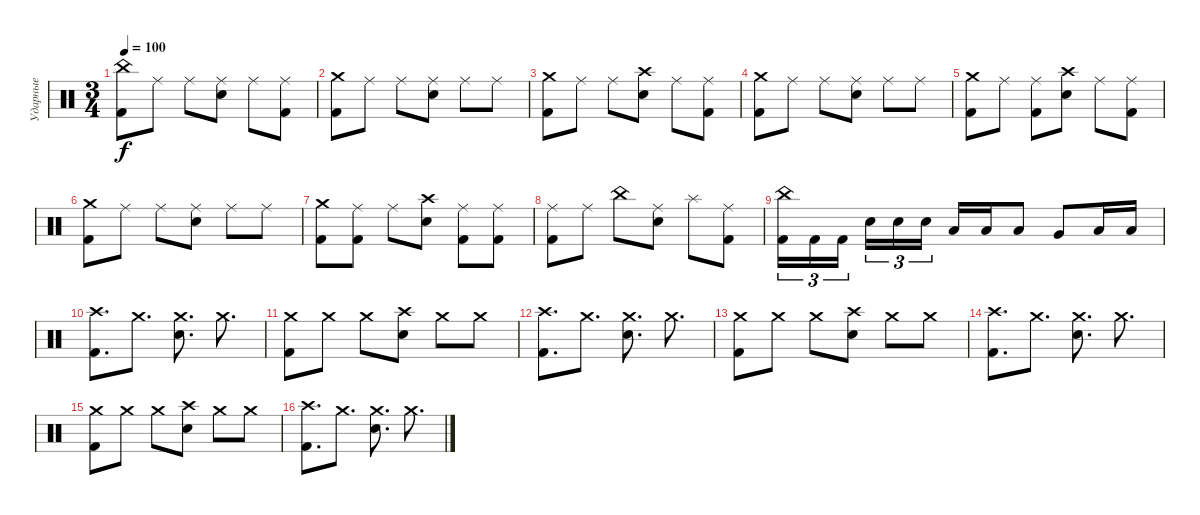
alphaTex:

\track ("Ударные" "Ударные") {instrument percussion}
\staff {score}
\articulation defaults
\ts (3 4)
\tempo 100
\clef neutral
\ks c
("China (hit)" "Kick (hit) 2").8{dy f} "Ride (middle)".8 "Ride (middle)".8 ("Ride (middle)" "Electric Snare (hit)").8 "Ride (middle)".8 ("Ride (middle)" "Kick (hit) 2").8 |
("Crash medium (hit)" "Kick (hit) 2").8 "Ride (middle)".8 "Ride (middle)".8 ("Ride (middle)" "Electric Snare (hit)").8 "Ride (middle)".8 "Ride (middle)".8 |
("Crash medium (hit)" "Kick (hit) 2").8 "Ride (middle)".8 "Ride (middle)".8 ("Crash high (hit)" "Electric Snare (hit)").8 "Ride (middle)".8 ("Ride (middle)" "Kick (hit) 2").8 |
("Crash medium (hit)" "Kick (hit) 2").8 "Ride (middle)".8 "Ride (middle)".8 ("Ride (middle)" "Electric Snare (hit)").8 "Ride (middle)".8 "Ride (middle)".8 |
("Crash medium (hit)" "Kick (hit) 2").8 "Ride (middle)".8 ("Ride (middle)" "Kick (hit) 2").8 ("Crash high (hit)" "Electric Snare (hit)").8 "Ride (middle)".8 ("Ride (middle)" "Kick (hit) 2").8 |
("Crash medium (hit)" "Kick (hit) 2").8 "Ride (middle)".8 "Ride (middle)".8 ("Ride (middle)" "Electric Snare (hit)").8 "Ride (middle)".8 "Ride (middle)".8 |
("Crash medium (hit)" "Kick (hit) 2").8 ("Ride (middle)" "Kick (hit) 2").8 "Ride (middle)".8 ("Crash high (hit)" "Electric Snare (hit)").8 ("Ride (middle)" "Kick (hit) 2").8 ("Ride (middle)" "Kick (hit) 2").8 |
("Ride (middle)" "Kick (hit) 2").8 "Ride (middle)".8 "China (hit)".8 ("Ride (middle)" "Electric Snare (hit)").8 "Splash (hit)".8 ("Ride (middle)" "Kick (hit) 2").8 |
("China (hit)" "Kick (hit) 2").16{tu (3 2)} "Kick (hit) 2".16{tu (3 2)} "Kick (hit) 2".16{tu (3 2) beam splitsecondary} "Electric Snare (hit)".16{tu (3 2)} "Electric Snare (hit)".16{tu (3 2)} "Electric Snare (hit)".16{tu (3 2)} "Low Tom (hit)".16 "Low Tom (hit)".16 "Low Tom (hit)".8 "Very Low Tom (hit)".8 "Low Floor Tom (hit)".16 "Low Floor Tom (hit)".16 |
("Crash high (hit)" "Kick (hit) 2").8{d} "Crash medium (hit)".8{d} ("Crash medium (hit)" "Electric Snare (hit)").8{d} "Crash medium (hit)".8{d} |
("Crash medium (hit)" "Kick (hit) 2").8 "Crash medium (hit)".8 "Crash medium (hit)".8 ("Crash high (hit)" "Electric Snare (hit)").8 "Crash medium (hit)".8 "Crash medium (hit)".8 |
("Crash high (hit)" "Kick (hit) 2").8{d} "Crash medium (hit)".8{d} ("Crash medium (hit)" "Electric Snare (hit)").8{d} "Crash medium (hit)".8{d} |
("Crash medium (hit)" "Kick (hit) 2").8 "Crash medium (hit)".8 "Crash medium (hit)".8 ("Crash high (hit)" "Electric Snare (hit)").8 "Crash medium (hit)".8 "Crash medium (hit)".8 |
("Crash high (hit)" "Kick (hit) 2").8{d} "Crash medium (hit)".8{d} ("Crash medium (hit)" "Electric Snare (hit)").8{d} "Crash medium (hit)".8{d} |
("Crash medium (hit)" "Kick (hit) 2").8 "Crash medium (hit)".8 "Crash medium (hit)".8 ("Crash high (hit)" "Electric Snare (hit)").8 "Crash medium (hit)".8 "Crash medium (hit)".8 |
("Crash high (hit)" "Kick (hit) 2").8{d} "Crash medium (hit)".8{d} ("Crash medium (hit)" "Electric Snare (hit)").8{d} "Crash medium (hit)".8{d}
